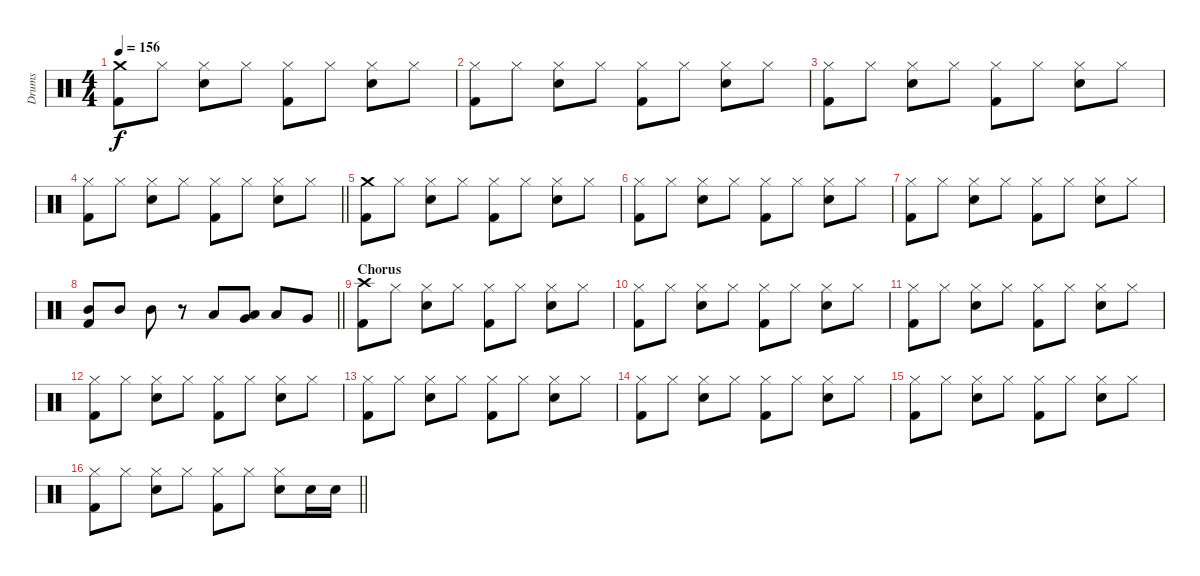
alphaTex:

\track ("Drums" "Drums") {instrument percussion}
\staff {score}
\articulation defaults
\ts (4 4)
\tempo 156
\clef neutral
\ks c
("Crash medium (hit)" "Kick (hit) 2").8{dy f} "Hi-Hat (closed)".8 ("Hi-Hat (closed)" "Electric Snare (hit)").8 "Hi-Hat (closed)".8 ("Hi-Hat (closed)" "Kick (hit) 2").8 "Hi-Hat (closed)".8 ("Hi-Hat (closed)" "Electric Snare (hit)").8 "Hi-Hat (closed)".8 |
("Hi-Hat (closed)" "Kick (hit) 2").8 "Hi-Hat (closed)".8 ("Hi-Hat (closed)" "Electric Snare (hit)").8 "Hi-Hat (closed)".8 ("Hi-Hat (closed)" "Kick (hit) 2").8 "Hi-Hat (closed)".8 ("Hi-Hat (closed)" "Electric Snare (hit)").8 "Hi-Hat (closed)".8 |
("Hi-Hat (closed)" "Kick (hit) 2").8 "Hi-Hat (closed)".8 ("Hi-Hat (closed)" "Electric Snare (hit)").8 "Hi-Hat (closed)".8 ("Hi-Hat (closed)" "Kick (hit) 2").8 "Hi-Hat (closed)".8 ("Hi-Hat (closed)" "Electric Snare (hit)").8 "Hi-Hat (closed)".8 |
\barLineRight lightlight
("Hi-Hat (closed)" "Kick (hit) 2").8 "Hi-Hat (closed)".8 ("Hi-Hat (closed)" "Electric Snare (hit)").8 "Hi-Hat (closed)".8 ("Hi-Hat (closed)" "Kick (hit) 2").8 "Hi-Hat (closed)".8 ("Hi-Hat (closed)" "Electric Snare (hit)").8 "Hi-Hat (closed)".8 |
("Crash medium (hit)" "Kick (hit) 2").8 "Hi-Hat (closed)".8 ("Hi-Hat (closed)" "Electric Snare (hit)").8 "Hi-Hat (closed)".8 ("Hi-Hat (closed)" "Kick (hit) 2").8 "Hi-Hat (closed)".8 ("Hi-Hat (closed)" "Electric Snare (hit)").8 "Hi-Hat (closed)".8 |
("Hi-Hat (closed)" "Kick (hit) 2").8 "Hi-Hat (closed)".8 ("Hi-Hat (closed)" "Electric Snare (hit)").8 "Hi-Hat (closed)".8 ("Hi-Hat (closed)" "Kick (hit) 2").8 "Hi-Hat (closed)".8 ("Hi-Hat (closed)" "Electric Snare (hit)").8 "Hi-Hat (closed)".8 |
("Hi-Hat (closed)" "Kick (hit) 2").8 "Hi-Hat (closed)".8 ("Hi-Hat (closed)" "Electric Snare (hit)").8 "Hi-Hat (closed)".8 ("Hi-Hat (closed)" "Kick (hit) 2").8 "Hi-Hat (closed)".8 ("Hi-Hat (closed)" "Electric Snare (hit)").8 "Hi-Hat (closed)".8 |
\barLineRight lightlight
("Mid Tom (hit)" "Kick (hit) 2").8 "Mid Tom (hit)".8 "Mid Tom (hit)".8 r.8 "Low Tom (hit)".8 ("Low Tom (hit)" "Very Low Tom (hit)").8 "Low Tom (hit)".8 "Very Low Tom (hit)".8 |
\section ("" "Chorus")
("Crash high (hit)" "Kick (hit) 2").8 "Hi-Hat (closed)".8 ("Hi-Hat (closed)" "Electric Snare (hit)").8 "Hi-Hat (closed)".8 ("Hi-Hat (closed)" "Kick (hit) 2").8 "Hi-Hat (closed)".8 ("Hi-Hat (closed)" "Electric Snare (hit)").8 "Hi-Hat (closed)".8 |
("Hi-Hat (closed)" "Kick (hit) 2").8 "Hi-Hat (closed)".8 ("Hi-Hat (closed)" "Electric Snare (hit)").8 "Hi-Hat (closed)".8 ("Hi-Hat (closed)" "Kick (hit) 2").8 "Hi-Hat (closed)".8 ("Hi-Hat (closed)" "Electric Snare (hit)").8 "Hi-Hat (closed)".8 |
("Hi-Hat (closed)" "Kick (hit) 2").8 "Hi-Hat (closed)".8 ("Hi-Hat (closed)" "Electric Snare (hit)").8 "Hi-Hat (closed)".8 ("Hi-Hat (closed)" "Kick (hit) 2").8 "Hi-Hat (closed)".8 ("Hi-Hat (closed)" "Electric Snare (hit)").8 "Hi-Hat (closed)".8 |
("Hi-Hat (closed)" "Kick (hit) 2").8 "Hi-Hat (closed)".8 ("Hi-Hat (closed)" "Electric Snare (hit)").8 "Hi-Hat (closed)".8 ("Hi-Hat (closed)" "Kick (hit) 2").8 "Hi-Hat (closed)".8 ("Hi-Hat (closed)" "Electric Snare (hit)").8 "Hi-Hat (closed)".8 |
("Hi-Hat (closed)" "Kick (hit) 2").8 "Hi-Hat (closed)".8 ("Hi-Hat (closed)" "Electric Snare (hit)").8 "Hi-Hat (closed)".8 ("Hi-Hat (closed)" "Kick (hit) 2").8 "Hi-Hat (closed)".8 ("Hi-Hat (closed)" "Electric Snare (hit)").8 "Hi-Hat (closed)".8 |
("Hi-Hat (closed)" "Kick (hit) 2").8 "Hi-Hat (closed)".8 ("Hi-Hat (closed)" "Electric Snare (hit)").8 "Hi-Hat (closed)".8 ("Hi-Hat (closed)" "Kick (hit) 2").8 "Hi-Hat (closed)".8 ("Hi-Hat (closed)" "Electric Snare (hit)").8 "Hi-Hat (closed)".8 |
("Hi-Hat (closed)" "Kick (hit) 2").8 "Hi-Hat (closed)".8 ("Hi-Hat (closed)" "Electric Snare (hit)").8 "Hi-Hat (closed)".8 ("Hi-Hat (closed)" "Kick (hit) 2").8 "Hi-Hat (closed)".8 ("Hi-Hat (closed)" "Electric Snare (hit)").8 "Hi-Hat (closed)".8 |
\barLineRight lightlight
("Hi-Hat (closed)" "Kick (hit) 2").8 "Hi-Hat (closed)".8 ("Hi-Hat (closed)" "Electric Snare (hit)").8 "Hi-Hat (closed)".8 ("Hi-Hat (closed)" "Kick (hit) 2").8 "Hi-Hat (closed)".8 ("Hi-Hat (closed)" "Electric Snare (hit)").8 "Electric Snare (hit)".16 "Electric Snare (hit)".16
